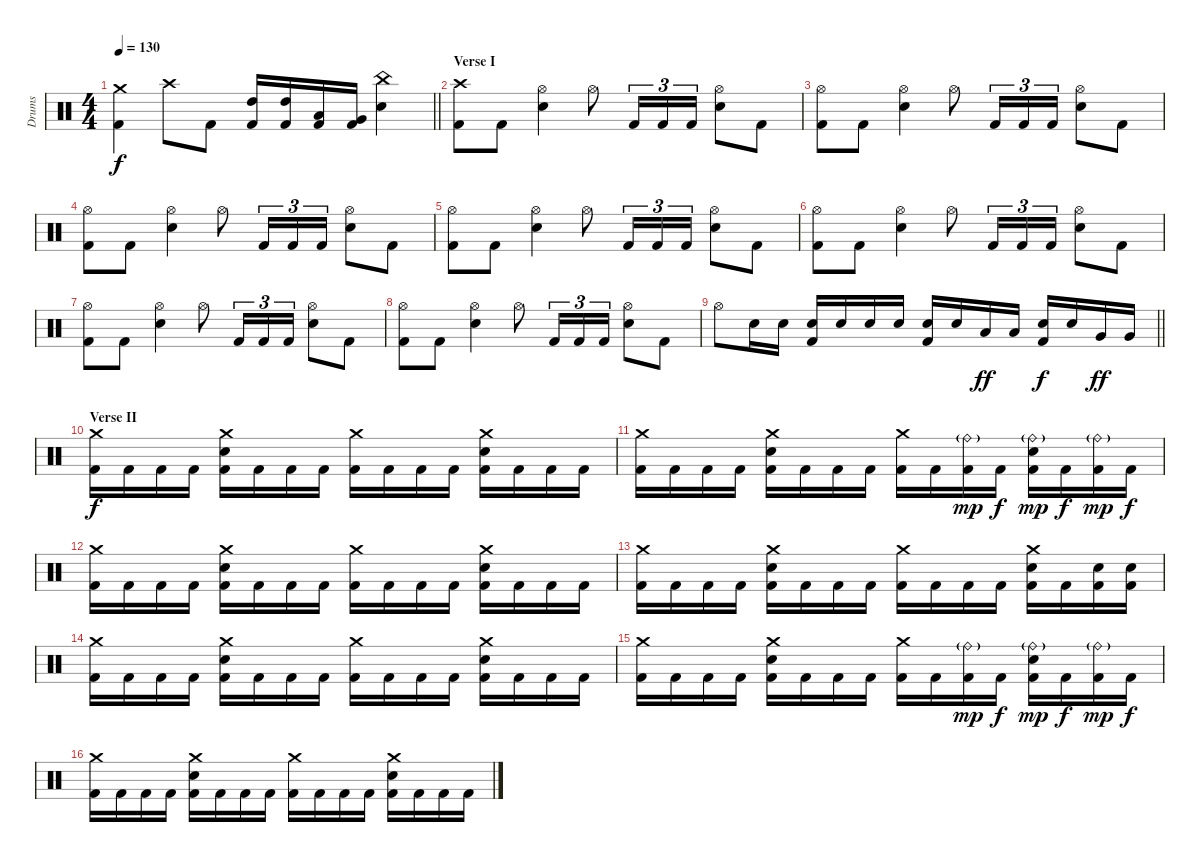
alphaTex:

\track ("Drums" "Drums") {instrument percussion}
\staff {score}
\articulation defaults
\ts (4 4)
\tempo 130
\clef neutral
\barLineRight lightlight
\ks c
("Crash medium (hit)" "Kick (hit) 2").4{dy f} "Crash high (hit)".8 "Kick (hit) 2".8 ("High Tom (hit)" "Kick (hit) 2").16 ("High Tom (hit)" "Kick (hit) 2").16 ("Low Tom (hit)" "Kick (hit) 2").16 ("Very Low Tom (hit)" "Kick (hit) 2").16 ("China (hit)" "Electric Snare (hit)").4 |
\section ("" "Verse I")
("Crash high (hit)" "Kick (hit) 2").8 "Kick (hit) 2".8 ("Hi-Hat (open)" "Electric Snare (hit)").4 "Hi-Hat (open)".8 "Kick (hit) 2".16{tu (3 2)} "Kick (hit) 2".16{tu (3 2)} "Kick (hit) 2".16{tu (3 2)} ("Hi-Hat (open)" "Electric Snare (hit)").8 "Kick (hit) 2".8 |
("Hi-Hat (open)" "Kick (hit) 2").8 "Kick (hit) 2".8 ("Hi-Hat (open)" "Electric Snare (hit)").4 "Hi-Hat (open)".8 "Kick (hit) 2".16{tu (3 2)} "Kick (hit) 2".16{tu (3 2)} "Kick (hit) 2".16{tu (3 2)} ("Hi-Hat (open)" "Electric Snare (hit)").8 "Kick (hit) 2".8 |
("Hi-Hat (open)" "Kick (hit) 2").8 "Kick (hit) 2".8 ("Hi-Hat (open)" "Electric Snare (hit)").4 "Hi-Hat (open)".8 "Kick (hit) 2".16{tu (3 2)} "Kick (hit) 2".16{tu (3 2)} "Kick (hit) 2".16{tu (3 2)} ("Hi-Hat (open)" "Electric Snare (hit)").8 "Kick (hit) 2".8 |
("Hi-Hat (open)" "Kick (hit) 2").8 "Kick (hit) 2".8 ("Hi-Hat (open)" "Electric Snare (hit)").4 "Hi-Hat (open)".8 "Kick (hit) 2".16{tu (3 2)} "Kick (hit) 2".16{tu (3 2)} "Kick (hit) 2".16{tu (3 2)} ("Hi-Hat (open)" "Electric Snare (hit)").8 "Kick (hit) 2".8 |
("Hi-Hat (open)" "Kick (hit) 2").8 "Kick (hit) 2".8 ("Hi-Hat (open)" "Electric Snare (hit)").4 "Hi-Hat (open)".8 "Kick (hit) 2".16{tu (3 2)} "Kick (hit) 2".16{tu (3 2)} "Kick (hit) 2".16{tu (3 2)} ("Hi-Hat (open)" "Electric Snare (hit)").8 "Kick (hit) 2".8 |
("Hi-Hat (open)" "Kick (hit) 2").8 "Kick (hit) 2".8 ("Hi-Hat (open)" "Electric Snare (hit)").4 "Hi-Hat (open)".8 "Kick (hit) 2".16{tu (3 2)} "Kick (hit) 2".16{tu (3 2)} "Kick (hit) 2".16{tu (3 2)} ("Hi-Hat (open)" "Electric Snare (hit)").8 "Kick (hit) 2".8 |
("Hi-Hat (open)" "Kick (hit) 2").8 "Kick (hit) 2".8 ("Hi-Hat (open)" "Electric Snare (hit)").4 "Hi-Hat (open)".8 "Kick (hit) 2".16{tu (3 2)} "Kick (hit) 2".16{tu (3 2)} "Kick (hit) 2".16{tu (3 2)} ("Hi-Hat (open)" "Electric Snare (hit)").8 "Kick (hit) 2".8 |
\barLineRight lightlight "Hi-Hat (open)".8 "Electric Snare (hit)".16 "Electric Snare (hit)".16
("Electric Snare (hit)" "Kick (hit) 2").16 "Electric Snare (hit)".16 "Electric Snare (hit)".16 "Electric Snare (hit)".16 ("Electric Snare (hit)" "Kick (hit) 2").16 "Electric Snare (hit)".16 "Low Tom (hit)".16{dy ff} "Low Tom (hit)".16 ("Electric Snare (hit)" "Kick (hit) 2").16{dy f} "Electric Snare (hit)".16 "Very Low Tom (hit)".16{dy ff} "Very Low Tom (hit)".16 |
\section ("" "Verse II")
("Crash medium (hit)" "Kick (hit) 2").16{dy f} "Kick (hit) 2".16 "Kick (hit) 2".16 "Kick (hit) 2".16 ("Crash medium (hit)" "Electric Snare (hit)" "Kick (hit) 2").16 "Kick (hit) 2".16 "Kick (hit) 2".16 "Kick (hit) 2".16 ("Crash medium (hit)" "Kick (hit) 2").16 "Kick (hit) 2".16 "Kick (hit) 2".16 "Kick (hit) 2".16 ("Crash medium (hit)" "Electric Snare (hit)" "Kick (hit) 2").16 "Kick (hit) 2".16 "Kick (hit) 2".16 "Kick (hit) 2".16 |
("Crash medium (hit)" "Kick (hit) 2").16 "Kick (hit) 2".16 "Kick (hit) 2".16 "Kick (hit) 2".16 ("Crash medium (hit)" "Electric Snare (hit)" "Kick (hit) 2").16 "Kick (hit) 2".16 "Kick (hit) 2".16 "Kick (hit) 2".16 ("Crash medium (hit)" "Kick (hit) 2").16 "Kick (hit) 2".16 ("Ride (bell)"{g} "Kick (hit) 2").16{dy mp} "Kick (hit) 2".16{dy f} ("Ride (bell)"{g} "Electric Snare (hit)" "Kick (hit) 2").16{dy mp} "Kick (hit) 2".16{dy f} ("Ride (bell)"{g} "Kick (hit) 2").16{dy mp} "Kick (hit) 2".16{dy f} |
("Crash medium (hit)" "Kick (hit) 2").16 "Kick (hit) 2".16 "Kick (hit) 2".16 "Kick (hit) 2".16 ("Crash medium (hit)" "Electric Snare (hit)" "Kick (hit) 2").16 "Kick (hit) 2".16 "Kick (hit) 2".16 "Kick (hit) 2".16 ("Crash medium (hit)" "Kick (hit) 2").16 "Kick (hit) 2".16 "Kick (hit) 2".16 "Kick (hit) 2".16 ("Crash medium (hit)" "Electric Snare (hit)" "Kick (hit) 2").16 "Kick (hit) 2".16 "Kick (hit) 2".16 "Kick (hit) 2".16 |
("Crash medium (hit)" "Kick (hit) 2").16 "Kick (hit) 2".16 "Kick (hit) 2".16 "Kick (hit) 2".16 ("Crash medium (hit)" "Electric Snare (hit)" "Kick (hit) 2").16 "Kick (hit) 2".16 "Kick (hit) 2".16 "Kick (hit) 2".16 ("Crash medium (hit)" "Kick (hit) 2").16 "Kick (hit) 2".16 "Kick (hit) 2".16 "Kick (hit) 2".16 ("Crash medium (hit)" "Electric Snare (hit)" "Kick (hit) 2").16 "Kick (hit) 2".16 ("Electric Snare (hit)" "Kick (hit) 2").16 ("Electric Snare (hit)" "Kick (hit) 2").16 |
("Crash medium (hit)" "Kick (hit) 2").16 "Kick (hit) 2".16 "Kick (hit) 2".16 "Kick (hit) 2".16 ("Crash medium (hit)" "Electric Snare (hit)" "Kick (hit) 2").16 "Kick (hit) 2".16 "Kick (hit) 2".16 "Kick (hit) 2".16 ("Crash medium (hit)" "Kick (hit) 2").16 "Kick (hit) 2".16 "Kick (hit) 2".16 "Kick (hit) 2".16 ("Crash medium (hit)" "Electric Snare (hit)" "Kick (hit) 2").16 "Kick (hit) 2".16 "Kick (hit) 2".16 "Kick (hit) 2".16 |
("Crash medium (hit)" "Kick (hit) 2").16 "Kick (hit) 2".16 "Kick (hit) 2".16 "Kick (hit) 2".16 ("Crash medium (hit)" "Electric Snare (hit)" "Kick (hit) 2").16 "Kick (hit) 2".16 "Kick (hit) 2".16 "Kick (hit) 2".16 ("Crash medium (hit)" "Kick (hit) 2").16 "Kick (hit) 2".16 ("Ride (bell)"{g} "Kick (hit) 2").16{dy mp} "Kick (hit) 2".16{dy f} ("Ride (bell)"{g} "Electric Snare (hit)" "Kick (hit) 2").16{dy mp} "Kick (hit) 2".16{dy f} ("Ride (bell)"{g} "Kick (hit) 2").16{dy mp} "Kick (hit) 2".16{dy f} |
("Crash medium (hit)" "Kick (hit) 2").16 "Kick (hit) 2".16 "Kick (hit) 2".16 "Kick (hit) 2".16 ("Crash medium (hit)" "Electric Snare (hit)" "Kick (hit) 2").16 "Kick (hit) 2".16 "Kick (hit) 2".16 "Kick (hit) 2".16 ("Crash medium (hit)" "Kick (hit) 2").16 "Kick (hit) 2".16 "Kick (hit) 2".16 "Kick (hit) 2".16 ("Crash medium (hit)" "Electric Snare (hit)" "Kick (hit) 2").16 "Kick (hit) 2".16 "Kick (hit) 2".16 "Kick (hit) 2".16
